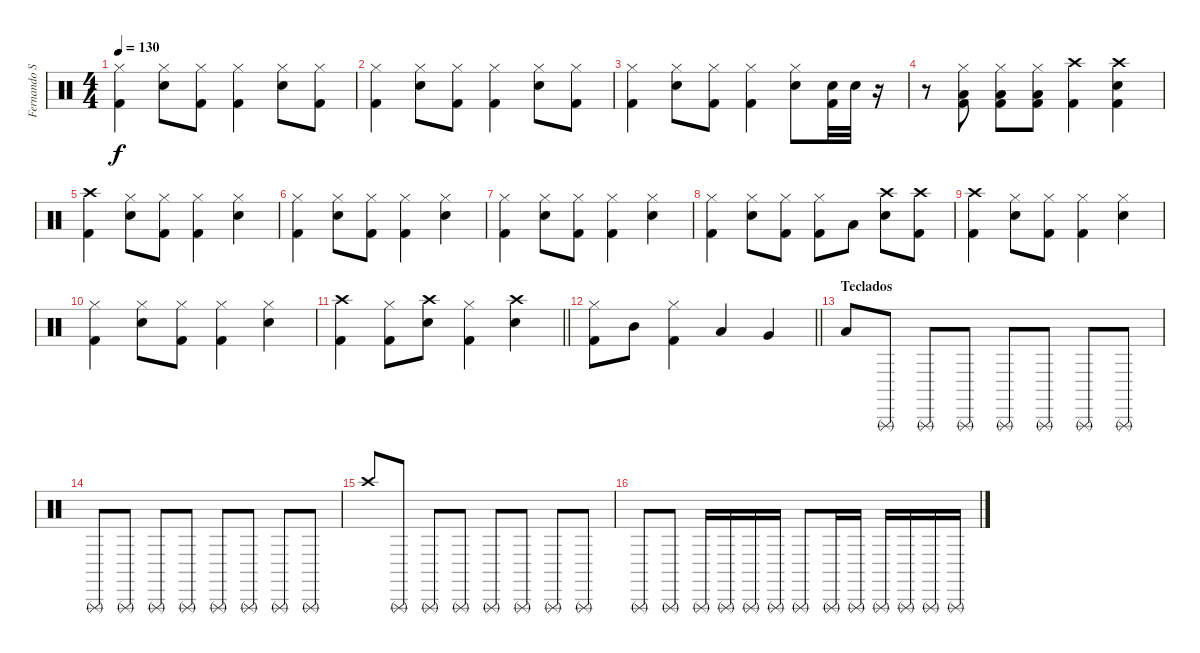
\track ("Fernando Scarcella" "Fernando S") {instrument percussion}
\staff {score}
\articulation defaults
\ts (4 4)
\tempo 130
\clef neutral
\ks c
("Hi-Hat (closed)" "Kick (hit) 2").4{dy f} ("Hi-Hat (closed)" "Snare (hit) 2").8 ("Hi-Hat (closed)" "Kick (hit) 2").8 ("Hi-Hat (closed)" "Kick (hit) 2").4 ("Hi-Hat (closed)" "Snare (hit) 2").8 ("Hi-Hat (closed)" "Kick (hit) 2").8 |
("Hi-Hat (closed)" "Kick (hit) 2").4 ("Hi-Hat (closed)" "Snare (hit) 2").8 ("Hi-Hat (closed)" "Kick (hit) 2").8 ("Hi-Hat (closed)" "Kick (hit) 2").4 ("Hi-Hat (closed)" "Snare (hit) 2").8 ("Hi-Hat (closed)" "Kick (hit) 2").8 |
("Hi-Hat (closed)" "Kick (hit) 2").4 ("Hi-Hat (closed)" "Snare (hit) 2").8 ("Hi-Hat (closed)" "Kick (hit) 2").8 ("Hi-Hat (closed)" "Kick (hit) 2").4 ("Hi-Hat (closed)" "Snare (hit) 2").8 ("Snare (hit) 2" "Kick (hit) 2").32 "Snare (hit) 2".32 r.16 |
r.8 ("Hi-Hat (closed)" "Low Floor Tom (hit)" "Kick (hit) 2").8 ("Hi-Hat (closed)" "Low Floor Tom (hit)" "Kick (hit) 2").8 ("Hi-Hat (closed)" "Low Floor Tom (hit)" "Kick (hit) 2").8 ("Crash high (hit)" "Kick (hit) 2").4 ("Crash high (hit)" "Snare (hit) 2" "Kick (hit) 2").4 |
("Crash high (hit)" "Kick (hit) 2").4 ("Hi-Hat (closed)" "Snare (hit) 2").8 ("Hi-Hat (closed)" "Kick (hit) 2").8 ("Hi-Hat (closed)" "Kick (hit) 2").4 ("Hi-Hat (closed)" "Snare (hit) 2").4 |
("Hi-Hat (closed)" "Kick (hit) 2").4 ("Hi-Hat (closed)" "Snare (hit) 2").8 ("Hi-Hat (closed)" "Kick (hit) 2").8 ("Hi-Hat (closed)" "Kick (hit) 2").4 ("Hi-Hat (closed)" "Snare (hit) 2").4 |
("Hi-Hat (closed)" "Kick (hit) 2").4 ("Hi-Hat (closed)" "Snare (hit) 2").8 ("Hi-Hat (closed)" "Kick (hit) 2").8 ("Hi-Hat (closed)" "Kick (hit) 2").4 ("Hi-Hat (closed)" "Snare (hit) 2").4 |
("Hi-Hat (closed)" "Kick (hit) 2").4 ("Hi-Hat (closed)" "Snare (hit) 2").8 ("Hi-Hat (closed)" "Kick (hit) 2").8 ("Hi-Hat (closed)" "Kick (hit) 2").8 "Low Tom (hit)".8 ("Crash high (hit)" "Snare (hit) 2").8 ("Crash high (hit)" "Kick (hit) 2").8 |
("Crash high (hit)" "Kick (hit) 2").4 ("Hi-Hat (closed)" "Snare (hit) 2").8 ("Hi-Hat (closed)" "Kick (hit) 2").8 ("Hi-Hat (closed)" "Kick (hit) 2").4 ("Hi-Hat (closed)" "Snare (hit) 2").4 |
("Hi-Hat (closed)" "Kick (hit) 2").4 ("Hi-Hat (closed)" "Snare (hit) 2").8 ("Hi-Hat (closed)" "Kick (hit) 2").8 ("Hi-Hat (closed)" "Kick (hit) 2").4 ("Hi-Hat (closed)" "Snare (hit) 2").4 |
\barLineRight lightlight
("Crash high (hit)" "Kick (hit) 2").4 ("Hi-Hat (closed)" "Kick (hit) 2").8 ("Crash high (hit)" "Snare (hit) 2").8 ("Hi-Hat (closed)" "Kick (hit) 2").4 ("Crash high (hit)" "Snare (hit) 2").4 |
\barLineRight lightlight
("Hi-Hat (closed)" "Kick (hit) 2").8 "Mid Tom (hit)".8 ("Hi-Hat (closed)" "Kick (hit) 2").4 "Low Tom (hit)".4 "Very Low Tom (hit)".4 |
\section ("" "Teclados")
"Low Floor Tom (hit)".8{volume 8} "Triangle (rnute)".8 "Triangle (rnute)".8 "Triangle (rnute)".8 "Triangle (rnute)".8 "Triangle (rnute)".8 "Triangle (rnute)".8 "Triangle (rnute)".8 |
"Triangle (rnute)".8 "Triangle (rnute)".8 "Triangle (rnute)".8 "Triangle (rnute)".8 "Triangle (rnute)".8 "Triangle (rnute)".8 "Triangle (rnute)".8 "Triangle (rnute)".8 |
"Crash high (hit)".8 "Triangle (rnute)".8 "Triangle (rnute)".8 "Triangle (rnute)".8 "Triangle (rnute)".8 "Triangle (rnute)".8 "Triangle (rnute)".8 "Triangle (rnute)".8 |
"Triangle (rnute)".8 "Triangle (rnute)".8 "Triangle (rnute)".16 "Triangle (rnute)".16 "Triangle (rnute)".16 "Triangle (rnute)".16 "Triangle (rnute)".8 "Triangle (rnute)".16 "Triangle (rnute)".16 "Triangle (rnute)".16 "Triangle (rnute)".16 "Triangle (rnute)".16 "Triangle (rnute)".16
